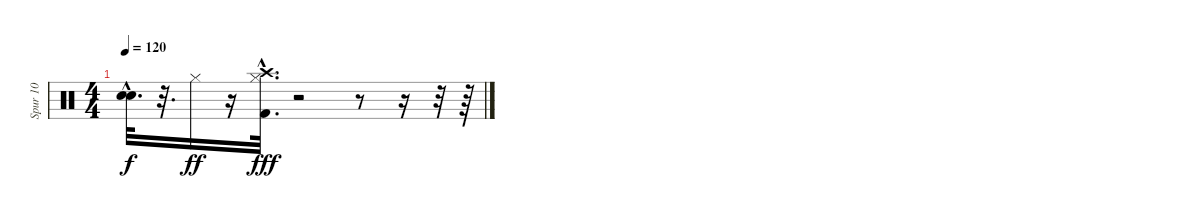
\track ("Spur 10" "Spur 10") {instrument percussion}
\staff {score}
\articulation defaults
\ts (4 4)
\tempo 120
\clef neutral
\ks c
("Snare (hit)"{t} "Snare (hit)"{hac t}).32{d dy f} r.32{d} "Hi-Hat (closed)".16{dy ff} r.16 ("Crash high (hit)"{hac} "Hi-Hat (closed)"{hac} "Kick (hit) 2"{hac}).32{d dy fff} r.2 r.8 r.16 r.32 r.64
